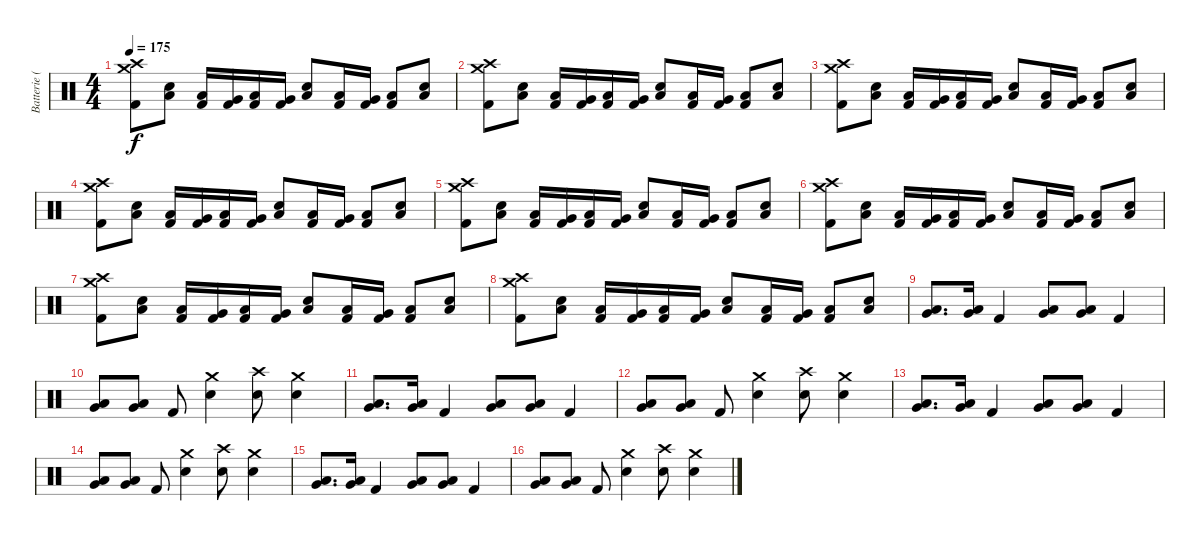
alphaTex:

\track ("Batterie (Tré Cool)" "Batterie (") {instrument percussion}
\staff {score}
\articulation defaults
\ts (4 4)
\tempo 175
\clef neutral
\ks c
("Crash medium (hit)" "Crash high (hit)" "Kick (hit) 2").8{dy f} ("Low Floor Tom (hit)" "Electric Snare (hit)").8 ("Low Floor Tom (hit)" "Kick (hit) 2").16 ("Very Low Tom (hit)" "Kick (hit) 2").16 ("Low Floor Tom (hit)" "Kick (hit) 2").16 ("Very Low Tom (hit)" "Kick (hit) 2").16 ("Low Floor Tom (hit)" "Electric Snare (hit)").8 ("Low Floor Tom (hit)" "Kick (hit) 2").16 ("Very Low Tom (hit)" "Kick (hit) 2").16 ("Low Floor Tom (hit)" "Kick (hit) 2").8 ("Low Floor Tom (hit)" "Electric Snare (hit)").8 |
("Crash medium (hit)" "Crash high (hit)" "Kick (hit) 2").8 ("Low Floor Tom (hit)" "Electric Snare (hit)").8 ("Low Floor Tom (hit)" "Kick (hit) 2").16 ("Very Low Tom (hit)" "Kick (hit) 2").16 ("Low Floor Tom (hit)" "Kick (hit) 2").16 ("Very Low Tom (hit)" "Kick (hit) 2").16 ("Low Floor Tom (hit)" "Electric Snare (hit)").8 ("Low Floor Tom (hit)" "Kick (hit) 2").16 ("Very Low Tom (hit)" "Kick (hit) 2").16 ("Low Floor Tom (hit)" "Kick (hit) 2").8 ("Low Floor Tom (hit)" "Electric Snare (hit)").8 |
("Crash medium (hit)" "Crash high (hit)" "Kick (hit) 2").8 ("Low Floor Tom (hit)" "Electric Snare (hit)").8 ("Low Floor Tom (hit)" "Kick (hit) 2").16 ("Very Low Tom (hit)" "Kick (hit) 2").16 ("Low Floor Tom (hit)" "Kick (hit) 2").16 ("Very Low Tom (hit)" "Kick (hit) 2").16 ("Low Floor Tom (hit)" "Electric Snare (hit)").8 ("Low Floor Tom (hit)" "Kick (hit) 2").16 ("Very Low Tom (hit)" "Kick (hit) 2").16 ("Low Floor Tom (hit)" "Kick (hit) 2").8 ("Low Floor Tom (hit)" "Electric Snare (hit)").8 |
("Crash medium (hit)" "Crash high (hit)" "Kick (hit) 2").8 ("Low Floor Tom (hit)" "Electric Snare (hit)").8 ("Low Floor Tom (hit)" "Kick (hit) 2").16 ("Very Low Tom (hit)" "Kick (hit) 2").16 ("Low Floor Tom (hit)" "Kick (hit) 2").16 ("Very Low Tom (hit)" "Kick (hit) 2").16 ("Low Floor Tom (hit)" "Electric Snare (hit)").8 ("Low Floor Tom (hit)" "Kick (hit) 2").16 ("Very Low Tom (hit)" "Kick (hit) 2").16 ("Low Floor Tom (hit)" "Kick (hit) 2").8 ("Low Floor Tom (hit)" "Electric Snare (hit)").8 |
("Crash medium (hit)" "Crash high (hit)" "Kick (hit) 2").8 ("Low Floor Tom (hit)" "Electric Snare (hit)").8 ("Low Floor Tom (hit)" "Kick (hit) 2").16 ("Very Low Tom (hit)" "Kick (hit) 2").16 ("Low Floor Tom (hit)" "Kick (hit) 2").16 ("Very Low Tom (hit)" "Kick (hit) 2").16 ("Low Floor Tom (hit)" "Electric Snare (hit)").8 ("Low Floor Tom (hit)" "Kick (hit) 2").16 ("Very Low Tom (hit)" "Kick (hit) 2").16 ("Low Floor Tom (hit)" "Kick (hit) 2").8 ("Low Floor Tom (hit)" "Electric Snare (hit)").8 |
("Crash medium (hit)" "Crash high (hit)" "Kick (hit) 2").8 ("Low Floor Tom (hit)" "Electric Snare (hit)").8 ("Low Floor Tom (hit)" "Kick (hit) 2").16 ("Very Low Tom (hit)" "Kick (hit) 2").16 ("Low Floor Tom (hit)" "Kick (hit) 2").16 ("Very Low Tom (hit)" "Kick (hit) 2").16 ("Low Floor Tom (hit)" "Electric Snare (hit)").8 ("Low Floor Tom (hit)" "Kick (hit) 2").16 ("Very Low Tom (hit)" "Kick (hit) 2").16 ("Low Floor Tom (hit)" "Kick (hit) 2").8 ("Low Floor Tom (hit)" "Electric Snare (hit)").8 |
("Crash medium (hit)" "Crash high (hit)" "Kick (hit) 2").8 ("Low Floor Tom (hit)" "Electric Snare (hit)").8 ("Low Floor Tom (hit)" "Kick (hit) 2").16 ("Very Low Tom (hit)" "Kick (hit) 2").16 ("Low Floor Tom (hit)" "Kick (hit) 2").16 ("Very Low Tom (hit)" "Kick (hit) 2").16 ("Low Floor Tom (hit)" "Electric Snare (hit)").8 ("Low Floor Tom (hit)" "Kick (hit) 2").16 ("Very Low Tom (hit)" "Kick (hit) 2").16 ("Low Floor Tom (hit)" "Kick (hit) 2").8 ("Low Floor Tom (hit)" "Electric Snare (hit)").8 |
("Crash medium (hit)" "Crash high (hit)" "Kick (hit) 2").8 ("Low Floor Tom (hit)" "Electric Snare (hit)").8 ("Low Floor Tom (hit)" "Kick (hit) 2").16 ("Very Low Tom (hit)" "Kick (hit) 2").16 ("Low Floor Tom (hit)" "Kick (hit) 2").16 ("Very Low Tom (hit)" "Kick (hit) 2").16 ("Low Floor Tom (hit)" "Electric Snare (hit)").8 ("Low Floor Tom (hit)" "Kick (hit) 2").16 ("Very Low Tom (hit)" "Kick (hit) 2").16 ("Low Floor Tom (hit)" "Kick (hit) 2").8 ("Low Floor Tom (hit)" "Electric Snare (hit)").8 |
("Very Low Tom (hit)" "Low Tom (hit)").8{d} ("Very Low Tom (hit)" "Low Tom (hit)").16 "Kick (hit) 2".4 ("Low Floor Tom (hit)" "Very Low Tom (hit)").8 ("Low Floor Tom (hit)" "Very Low Tom (hit)").8 "Kick (hit) 2".4 |
("Very Low Tom (hit)" "Low Tom (hit)").8 ("Very Low Tom (hit)" "Low Tom (hit)").8 "Kick (hit) 2".8 ("Crash medium (hit)" "Electric Snare (hit)").4 ("Crash high (hit)" "Electric Snare (hit)").8 ("Crash medium (hit)" "Electric Snare (hit)").4 |
("Very Low Tom (hit)" "Low Tom (hit)").8{d} ("Very Low Tom (hit)" "Low Tom (hit)").16 "Kick (hit) 2".4 ("Low Floor Tom (hit)" "Very Low Tom (hit)").8 ("Low Floor Tom (hit)" "Very Low Tom (hit)").8 "Kick (hit) 2".4 |
("Very Low Tom (hit)" "Low Tom (hit)").8 ("Very Low Tom (hit)" "Low Tom (hit)").8 "Kick (hit) 2".8 ("Crash medium (hit)" "Electric Snare (hit)").4 ("Crash high (hit)" "Electric Snare (hit)").8 ("Crash medium (hit)" "Electric Snare (hit)").4 |
("Very Low Tom (hit)" "Low Tom (hit)").8{d} ("Very Low Tom (hit)" "Low Tom (hit)").16 "Kick (hit) 2".4 ("Low Floor Tom (hit)" "Very Low Tom (hit)").8 ("Low Floor Tom (hit)" "Very Low Tom (hit)").8 "Kick (hit) 2".4 |
("Very Low Tom (hit)" "Low Tom (hit)").8 ("Very Low Tom (hit)" "Low Tom (hit)").8 "Kick (hit) 2".8 ("Crash medium (hit)" "Electric Snare (hit)").4 ("Crash high (hit)" "Electric Snare (hit)").8 ("Crash medium (hit)" "Electric Snare (hit)").4 |
("Very Low Tom (hit)" "Low Tom (hit)").8{d} ("Very Low Tom (hit)" "Low Tom (hit)").16 "Kick (hit) 2".4 ("Low Floor Tom (hit)" "Very Low Tom (hit)").8 ("Low Floor Tom (hit)" "Very Low Tom (hit)").8 "Kick (hit) 2".4 |
("Very Low Tom (hit)" "Low Tom (hit)").8 ("Very Low Tom (hit)" "Low Tom (hit)").8 "Kick (hit) 2".8 ("Crash medium (hit)" "Electric Snare (hit)").4 ("Crash high (hit)" "Electric Snare (hit)").8 ("Crash medium (hit)" "Electric Snare (hit)").4
